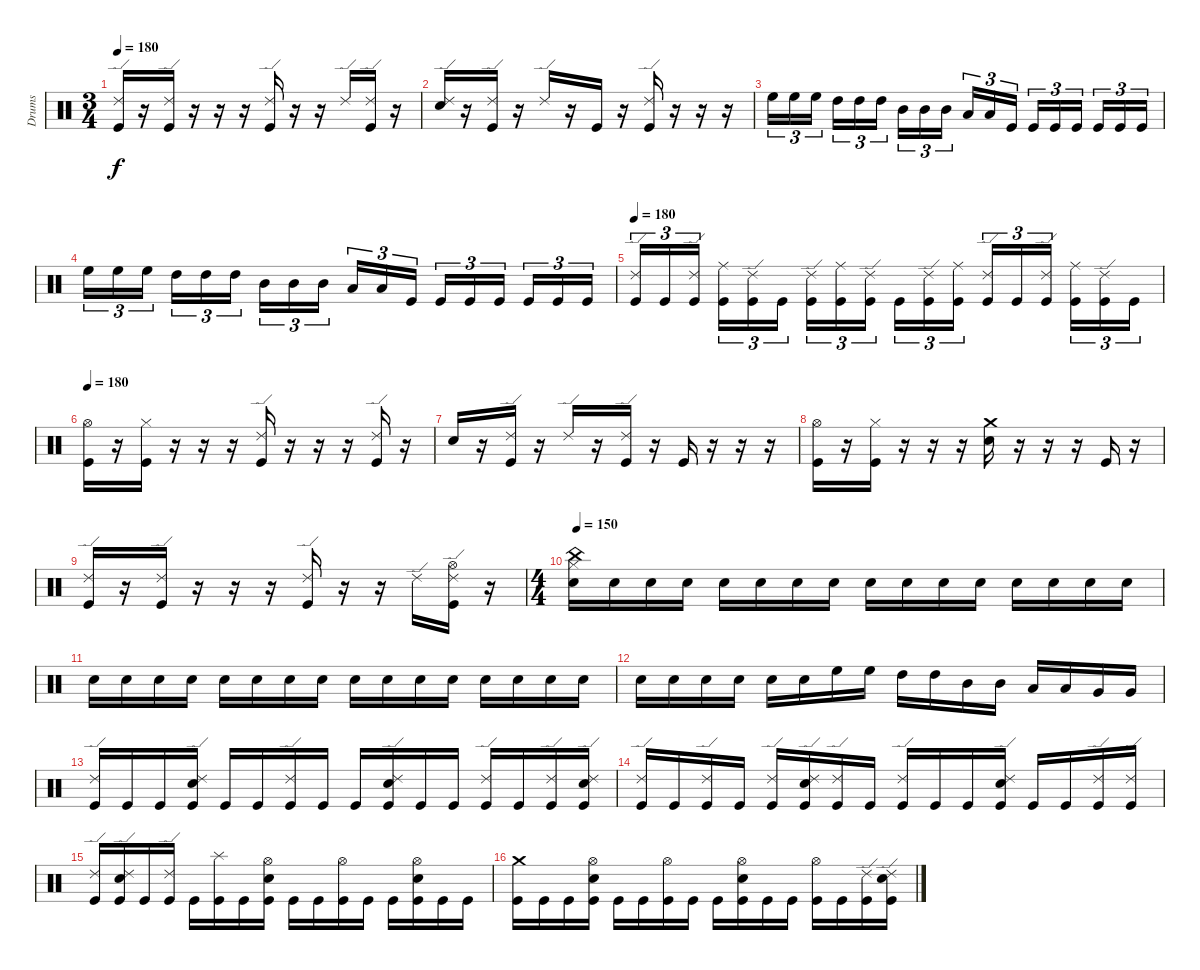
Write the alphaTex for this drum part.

\track ("Drums" "Drums") {instrument percussion}
\staff {score}
\articulation defaults
\ts (3 4)
\tempo 180
\clef neutral
\ks c
("Ride (edge) 2" "Kick (hit)").16{dy f} r.16 ("Ride (edge) 2" "Kick (hit)").16 r.16 r.16 r.16 ("Ride (edge) 2" "Kick (hit)").16 r.16 r.16 "Ride (edge) 2".16 ("Ride (edge) 2" "Kick (hit)").16 r.16 |
("Ride (edge) 2" "Electric Snare (hit)").16 r.16 ("Ride (edge) 2" "Kick (hit)").16 r.16 "Ride (edge) 2".16 r.16 "Kick (hit)".16 r.16 ("Ride (edge) 2" "Kick (hit)").16 r.16 r.16 r.16 |
"High Floor Tom (hit)".16{tu (3 2)} "High Floor Tom (hit)".16{tu (3 2)} "High Floor Tom (hit)".16{tu (3 2)} "High Tom (hit)".16{tu (3 2)} "High Tom (hit)".16{tu (3 2)} "High Tom (hit)".16{tu (3 2)} "Mid Tom (hit)".16{tu (3 2)} "Mid Tom (hit)".16{tu (3 2)} "Mid Tom (hit)".16{tu (3 2)} "Low Tom (hit)".16{tu (3 2)} "Low Tom (hit)".16{tu (3 2)} "Kick (hit)".16{tu (3 2)} "Kick (hit)".16{tu (3 2)} "Kick (hit)".16{tu (3 2)} "Kick (hit)".16{tu (3 2)} "Kick (hit)".16{tu (3 2)} "Kick (hit)".16{tu (3 2)} "Kick (hit)".16{tu (3 2)} |
"High Floor Tom (hit)".16{tu (3 2)} "High Floor Tom (hit)".16{tu (3 2)} "High Floor Tom (hit)".16{tu (3 2)} "High Tom (hit)".16{tu (3 2)} "High Tom (hit)".16{tu (3 2)} "High Tom (hit)".16{tu (3 2)} "Mid Tom (hit)".16{tu (3 2)} "Mid Tom (hit)".16{tu (3 2)} "Mid Tom (hit)".16{tu (3 2)} "Low Tom (hit)".16{tu (3 2)} "Low Tom (hit)".16{tu (3 2)} "Kick (hit)".16{tu (3 2)} "Kick (hit)".16{tu (3 2)} "Kick (hit)".16{tu (3 2)} "Kick (hit)".16{tu (3 2)} "Kick (hit)".16{tu (3 2)} "Kick (hit)".16{tu (3 2)} "Kick (hit)".16{tu (3 2)} |
\tempo 180
("Ride (edge) 2" "Kick (hit)").16{tu (3 2)} "Kick (hit)".16{tu (3 2)} ("Ride (edge) 2" "Kick (hit)").16{tu (3 2)} ("Ride (middle)" "Kick (hit)").16{tu (3 2)} ("Ride (edge) 2" "Kick (hit)").16{tu (3 2)} "Kick (hit)".16{tu (3 2)} ("Ride (edge) 2" "Kick (hit)").16{tu (3 2)} ("Ride (middle)" "Kick (hit)").16{tu (3 2)} ("Ride (edge) 2" "Kick (hit)").16{tu (3 2)} "Kick (hit)".16{tu (3 2)} ("Ride (edge) 2" "Kick (hit)").16{tu (3 2)} ("Ride (middle)" "Kick (hit)").16{tu (3 2)} ("Ride (edge) 2" "Kick (hit)").16{tu (3 2)} "Kick (hit)".16{tu (3 2)} ("Ride (edge) 2" "Kick (hit)").16{tu (3 2)} ("Ride (middle)" "Kick (hit)").16{tu (3 2)} ("Ride (edge) 2" "Kick (hit)").16{tu (3 2)} "Kick (hit)".16{tu (3 2)} |
\tempo 180
("Hi-Hat (open)" "Kick (hit)").16 r.16 ("Hi-Hat (closed)" "Kick (hit)").16 r.16 r.16 r.16 ("Ride (edge) 2" "Kick (hit)").16 r.16 r.16 r.16 ("Ride (edge) 2" "Kick (hit)").16 r.16 |
"Electric Snare (hit)".16 r.16 ("Ride (edge) 2" "Kick (hit)").16 r.16 "Ride (edge) 2".16 r.16 ("Ride (edge) 2" "Kick (hit)").16 r.16 "Kick (hit)".16 r.16 r.16 r.16 |
("Hi-Hat (open)" "Kick (hit)").16 r.16 ("Hi-Hat (closed)" "Kick (hit)").16 r.16 r.16 r.16 ("Crash medium (hit)" "Electric Snare (hit)").16 r.16 r.16 r.16 "Kick (hit)".16 r.16 |
("Ride (edge) 2" "Kick (hit)").16 r.16 ("Ride (edge) 2" "Kick (hit)").16 r.16 r.16 r.16 ("Ride (edge) 2" "Kick (hit)").16 r.16 r.16 "Ride (edge) 2".16 ("Hi-Hat (open)" "Ride (edge) 2" "Kick (hit)").16 r.16 |
\ts (4 4)
\tempo 150
("China (hit)" "Hi-Hat (closed)" "Electric Snare (hit)").16 "Electric Snare (hit)".16 "Electric Snare (hit)".16 "Electric Snare (hit)".16 "Electric Snare (hit)".16 "Electric Snare (hit)".16 "Electric Snare (hit)".16 "Electric Snare (hit)".16 "Electric Snare (hit)".16 "Electric Snare (hit)".16 "Electric Snare (hit)".16 "Electric Snare (hit)".16 "Electric Snare (hit)".16 "Electric Snare (hit)".16 "Electric Snare (hit)".16 "Electric Snare (hit)".16 |
"Electric Snare (hit)".16 "Electric Snare (hit)".16 "Electric Snare (hit)".16 "Electric Snare (hit)".16 "Electric Snare (hit)".16 "Electric Snare (hit)".16 "Electric Snare (hit)".16 "Electric Snare (hit)".16 "Electric Snare (hit)".16 "Electric Snare (hit)".16 "Electric Snare (hit)".16 "Electric Snare (hit)".16 "Electric Snare (hit)".16 "Electric Snare (hit)".16 "Electric Snare (hit)".16 "Electric Snare (hit)".16 |
"Electric Snare (hit)".16 "Electric Snare (hit)".16 "Electric Snare (hit)".16 "Electric Snare (hit)".16 "Electric Snare (hit)".16 "Electric Snare (hit)".16 "High Floor Tom (hit)".16 "High Floor Tom (hit)".16 "High Tom (hit)".16 "High Tom (hit)".16 "Mid Tom (hit)".16 "Mid Tom (hit)".16 "Low Tom (hit)".16 "Low Tom (hit)".16 "Very Low Tom (hit)".16 "Very Low Tom (hit)".16 |
("Ride (edge) 2" "Kick (hit)").16 "Kick (hit)".16 "Kick (hit)".16 ("Ride (edge) 2" "Electric Snare (hit)" "Kick (hit)").16 "Kick (hit)".16 "Kick (hit)".16 ("Ride (edge) 2" "Kick (hit)").16 "Kick (hit)".16 "Kick (hit)".16 ("Ride (edge) 2" "Electric Snare (hit)" "Kick (hit)").16 "Kick (hit)".16 "Kick (hit)".16 ("Ride (edge) 2" "Kick (hit)").16 "Kick (hit)".16 ("Ride (edge) 2" "Kick (hit)").16 ("Ride (edge) 2" "Electric Snare (hit)" "Kick (hit)").16 |
("Ride (edge) 2" "Kick (hit)").16 "Kick (hit)".16 ("Ride (edge) 2" "Kick (hit)").16 "Kick (hit)".16 ("Ride (edge) 2" "Kick (hit)").16 ("Ride (edge) 2" "Electric Snare (hit)" "Kick (hit)").16 ("Ride (edge) 2" "Kick (hit)").16 "Kick (hit)".16 ("Ride (edge) 2" "Kick (hit)").16 "Kick (hit)".16 "Kick (hit)".16 ("Ride (edge) 2" "Electric Snare (hit)" "Kick (hit)").16 "Kick (hit)".16 "Kick (hit)".16 ("Ride (edge) 2" "Kick (hit)").16 ("Ride (edge) 2" "Kick (hit)").16 |
("Ride (edge) 2" "Kick (hit)").16 ("Ride (edge) 2" "Electric Snare (hit)" "Kick (hit)").16 "Kick (hit)".16 ("Ride (edge) 2" "Kick (hit)").16 "Kick (hit)".16 ("Splash (hit)" "Kick (hit)").16 "Kick (hit)".16 ("Hi-Hat (open)" "Electric Snare (hit)" "Kick (hit)").16 "Kick (hit)".16 "Kick (hit)".16 ("Hi-Hat (open)" "Kick (hit)").16 "Kick (hit)".16 "Kick (hit)".16 ("Hi-Hat (open)" "Electric Snare (hit)" "Kick (hit)").16 "Kick (hit)".16 "Kick (hit)".16 |
("Crash medium (hit)" "Kick (hit)").16 "Kick (hit)".16 "Kick (hit)".16 ("Hi-Hat (open)" "Electric Snare (hit)" "Kick (hit)").16 "Kick (hit)".16 "Kick (hit)".16 ("Hi-Hat (open)" "Kick (hit)").16 "Kick (hit)".16 "Kick (hit)".16 ("Hi-Hat (open)" "Electric Snare (hit)" "Kick (hit)").16 "Kick (hit)".16 "Kick (hit)".16 ("Hi-Hat (open)" "Kick (hit)").16 "Kick (hit)".16 ("Ride (edge) 2" "Kick (hit)").16 ("Ride (edge) 2" "Electric Snare (hit)" "Kick (hit)").16
